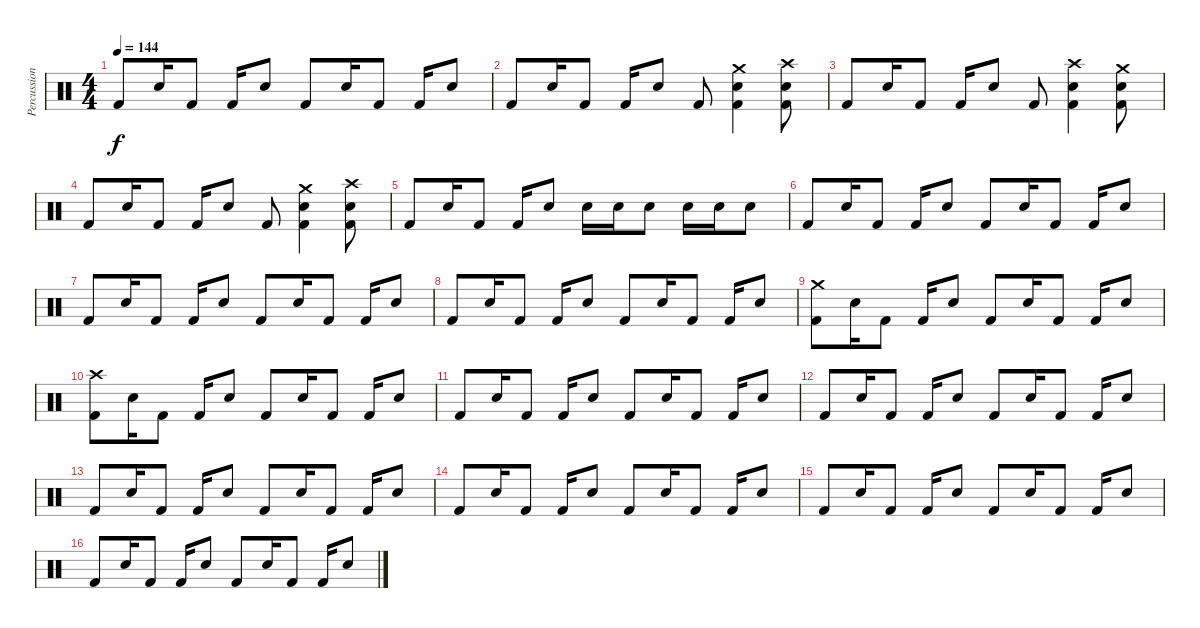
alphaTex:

\track ("Percussion" "Percussion") {instrument percussion}
\staff {score}
\articulation defaults
\ts (4 4)
\tempo 144
\clef neutral
\ks c "Kick (hit) 2".8{dy f} "Snare (hit) 2".16 "Kick (hit) 2".8 "Kick (hit) 2".16 "Snare (hit) 2".8 "Kick (hit) 2".8 "Snare (hit) 2".16 "Kick (hit) 2".8 "Kick (hit) 2".16 "Snare (hit) 2".8
|
"Kick (hit) 2".8 "Snare (hit) 2".16 "Kick (hit) 2".8 "Kick (hit) 2".16 "Snare (hit) 2".8 "Kick (hit) 2".8 ("Crash medium (hit)" "Snare (hit) 2" "Kick (hit) 2").4 ("Crash high (hit)" "Snare (hit) 2" "Kick (hit) 2").8 |
"Kick (hit) 2".8 "Snare (hit) 2".16 "Kick (hit) 2".8 "Kick (hit) 2".16 "Snare (hit) 2".8 "Kick (hit) 2".8 ("Crash high (hit)" "Snare (hit) 2" "Kick (hit) 2").4 ("Crash medium (hit)" "Snare (hit) 2" "Kick (hit) 2").8 |
"Kick (hit) 2".8 "Snare (hit) 2".16 "Kick (hit) 2".8 "Kick (hit) 2".16 "Snare (hit) 2".8 "Kick (hit) 2".8 ("Crash medium (hit)" "Snare (hit) 2" "Kick (hit) 2").4 ("Crash high (hit)" "Snare (hit) 2" "Kick (hit) 2").8 |
"Kick (hit) 2".8 "Snare (hit) 2".16 "Kick (hit) 2".8 "Kick (hit) 2".16 "Snare (hit) 2".8 "Snare (hit) 2".16 "Snare (hit) 2".16 "Snare (hit) 2".8 "Snare (hit) 2".16 "Snare (hit) 2".16 "Snare (hit) 2".8 |
"Kick (hit) 2".8 "Snare (hit) 2".16 "Kick (hit) 2".8 "Kick (hit) 2".16 "Snare (hit) 2".8 "Kick (hit) 2".8 "Snare (hit) 2".16 "Kick (hit) 2".8 "Kick (hit) 2".16 "Snare (hit) 2".8 |
"Kick (hit) 2".8 "Snare (hit) 2".16 "Kick (hit) 2".8 "Kick (hit) 2".16 "Snare (hit) 2".8 "Kick (hit) 2".8 "Snare (hit) 2".16 "Kick (hit) 2".8 "Kick (hit) 2".16 "Snare (hit) 2".8 |
"Kick (hit) 2".8 "Snare (hit) 2".16 "Kick (hit) 2".8 "Kick (hit) 2".16 "Snare (hit) 2".8 "Kick (hit) 2".8 "Snare (hit) 2".16 "Kick (hit) 2".8 "Kick (hit) 2".16 "Snare (hit) 2".8 |
("Crash medium (hit)" "Kick (hit) 2").8 "Snare (hit) 2".16 "Kick (hit) 2".8 "Kick (hit) 2".16 "Snare (hit) 2".8 "Kick (hit) 2".8 "Snare (hit) 2".16 "Kick (hit) 2".8 "Kick (hit) 2".16 "Snare (hit) 2".8 |
("Crash high (hit)" "Kick (hit) 2").8 "Snare (hit) 2".16 "Kick (hit) 2".8 "Kick (hit) 2".16 "Snare (hit) 2".8 "Kick (hit) 2".8 "Snare (hit) 2".16 "Kick (hit) 2".8 "Kick (hit) 2".16 "Snare (hit) 2".8 |
"Kick (hit) 2".8 "Snare (hit) 2".16 "Kick (hit) 2".8 "Kick (hit) 2".16 "Snare (hit) 2".8 "Kick (hit) 2".8 "Snare (hit) 2".16 "Kick (hit) 2".8 "Kick (hit) 2".16 "Snare (hit) 2".8 |
"Kick (hit) 2".8 "Snare (hit) 2".16 "Kick (hit) 2".8 "Kick (hit) 2".16 "Snare (hit) 2".8 "Kick (hit) 2".8 "Snare (hit) 2".16 "Kick (hit) 2".8 "Kick (hit) 2".16 "Snare (hit) 2".8 |
"Kick (hit) 2".8 "Snare (hit) 2".16 "Kick (hit) 2".8 "Kick (hit) 2".16 "Snare (hit) 2".8 "Kick (hit) 2".8 "Snare (hit) 2".16 "Kick (hit) 2".8 "Kick (hit) 2".16 "Snare (hit) 2".8 |
"Kick (hit) 2".8 "Snare (hit) 2".16 "Kick (hit) 2".8 "Kick (hit) 2".16 "Snare (hit) 2".8 "Kick (hit) 2".8 "Snare (hit) 2".16 "Kick (hit) 2".8 "Kick (hit) 2".16 "Snare (hit) 2".8 |
"Kick (hit) 2".8 "Snare (hit) 2".16 "Kick (hit) 2".8 "Kick (hit) 2".16 "Snare (hit) 2".8 "Kick (hit) 2".8 "Snare (hit) 2".16 "Kick (hit) 2".8 "Kick (hit) 2".16 "Snare (hit) 2".8 |
"Kick (hit) 2".8 "Snare (hit) 2".16 "Kick (hit) 2".8 "Kick (hit) 2".16 "Snare (hit) 2".8 "Kick (hit) 2".8 "Snare (hit) 2".16 "Kick (hit) 2".8 "Kick (hit) 2".16 "Snare (hit) 2".8
